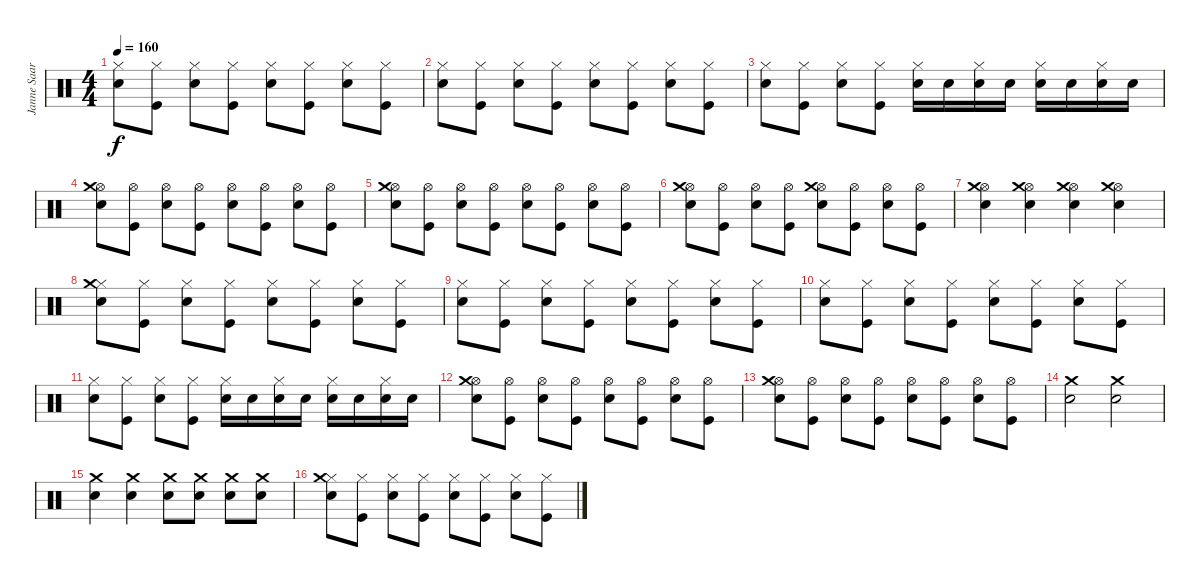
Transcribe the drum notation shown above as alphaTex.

\track ("Janne Saarenpaa" "Janne Saar") {instrument percussion}
\staff {score}
\articulation defaults
\ts (4 4)
\tempo 160
\clef neutral
\ks c
("Hi-Hat (closed)" "Snare (hit) 2").8{dy f} ("Hi-Hat (closed)" "Kick (hit)").8 ("Hi-Hat (closed)" "Snare (hit) 2").8 ("Hi-Hat (closed)" "Kick (hit)").8 ("Hi-Hat (closed)" "Snare (hit) 2").8 ("Hi-Hat (closed)" "Kick (hit)").8 ("Hi-Hat (closed)" "Snare (hit) 2").8 ("Hi-Hat (closed)" "Kick (hit)").8 |
("Hi-Hat (closed)" "Snare (hit) 2").8 ("Hi-Hat (closed)" "Kick (hit)").8 ("Hi-Hat (closed)" "Snare (hit) 2").8 ("Hi-Hat (closed)" "Kick (hit)").8 ("Hi-Hat (closed)" "Snare (hit) 2").8 ("Hi-Hat (closed)" "Kick (hit)").8 ("Hi-Hat (closed)" "Snare (hit) 2").8 ("Hi-Hat (closed)" "Kick (hit)").8 |
("Hi-Hat (closed)" "Snare (hit) 2").8 ("Hi-Hat (closed)" "Kick (hit)").8 ("Hi-Hat (closed)" "Snare (hit) 2").8 ("Hi-Hat (closed)" "Kick (hit)").8 ("Hi-Hat (closed)" "Snare (hit) 2").16 "Snare (hit) 2".16 ("Hi-Hat (closed)" "Snare (hit) 2").16 "Snare (hit) 2".16 ("Hi-Hat (closed)" "Snare (hit) 2").16 "Snare (hit) 2".16 ("Hi-Hat (closed)" "Snare (hit) 2").16 "Snare (hit) 2".16 |
("Hi-Hat (open)" "Snare (hit) 2" "Crash medium (hit)").8 ("Hi-Hat (open)" "Kick (hit)").8 ("Hi-Hat (open)" "Snare (hit) 2").8 ("Hi-Hat (open)" "Kick (hit)").8 ("Hi-Hat (open)" "Snare (hit) 2").8 ("Hi-Hat (open)" "Kick (hit)").8 ("Hi-Hat (open)" "Snare (hit) 2").8 ("Hi-Hat (open)" "Kick (hit)").8 |
("Hi-Hat (open)" "Snare (hit) 2" "Crash medium (hit)").8 ("Hi-Hat (open)" "Kick (hit)").8 ("Hi-Hat (open)" "Snare (hit) 2").8 ("Hi-Hat (open)" "Kick (hit)").8 ("Hi-Hat (open)" "Snare (hit) 2").8 ("Hi-Hat (open)" "Kick (hit)").8 ("Hi-Hat (open)" "Snare (hit) 2").8 ("Hi-Hat (open)" "Kick (hit)").8 |
("Hi-Hat (open)" "Snare (hit) 2" "Crash medium (hit)").8 ("Hi-Hat (open)" "Kick (hit)").8 ("Hi-Hat (open)" "Snare (hit) 2").8 ("Hi-Hat (open)" "Kick (hit)").8 ("Hi-Hat (open)" "Snare (hit) 2" "Crash medium (hit)").8 ("Hi-Hat (open)" "Kick (hit)").8 ("Hi-Hat (open)" "Snare (hit) 2").8 ("Hi-Hat (open)" "Kick (hit)").8 |
("Hi-Hat (open)" "Snare (hit) 2" "Crash medium (hit)").4 ("Hi-Hat (open)" "Snare (hit) 2" "Crash medium (hit)").4 ("Hi-Hat (open)" "Snare (hit) 2" "Crash medium (hit)").4 ("Hi-Hat (open)" "Snare (hit) 2" "Crash medium (hit)").4 |
("Hi-Hat (closed)" "Snare (hit) 2" "Crash medium (hit)").8 ("Hi-Hat (closed)" "Kick (hit)").8 ("Hi-Hat (closed)" "Snare (hit) 2").8 ("Hi-Hat (closed)" "Kick (hit)").8 ("Hi-Hat (closed)" "Snare (hit) 2").8 ("Hi-Hat (closed)" "Kick (hit)").8 ("Hi-Hat (closed)" "Snare (hit) 2").8 ("Hi-Hat (closed)" "Kick (hit)").8 |
("Hi-Hat (closed)" "Snare (hit) 2").8 ("Hi-Hat (closed)" "Kick (hit)").8 ("Hi-Hat (closed)" "Snare (hit) 2").8 ("Hi-Hat (closed)" "Kick (hit)").8 ("Hi-Hat (closed)" "Snare (hit) 2").8 ("Hi-Hat (closed)" "Kick (hit)").8 ("Hi-Hat (closed)" "Snare (hit) 2").8 ("Hi-Hat (closed)" "Kick (hit)").8 |
("Hi-Hat (closed)" "Snare (hit) 2").8 ("Hi-Hat (closed)" "Kick (hit)").8 ("Hi-Hat (closed)" "Snare (hit) 2").8 ("Hi-Hat (closed)" "Kick (hit)").8 ("Hi-Hat (closed)" "Snare (hit) 2").8 ("Hi-Hat (closed)" "Kick (hit)").8 ("Hi-Hat (closed)" "Snare (hit) 2").8 ("Hi-Hat (closed)" "Kick (hit)").8 |
("Hi-Hat (closed)" "Snare (hit) 2").8 ("Hi-Hat (closed)" "Kick (hit)").8 ("Hi-Hat (closed)" "Snare (hit) 2").8 ("Hi-Hat (closed)" "Kick (hit)").8 ("Hi-Hat (closed)" "Snare (hit) 2").16 "Snare (hit) 2".16 ("Hi-Hat (closed)" "Snare (hit) 2").16 "Snare (hit) 2".16 ("Hi-Hat (closed)" "Snare (hit) 2").16 "Snare (hit) 2".16 ("Hi-Hat (closed)" "Snare (hit) 2").16 "Snare (hit) 2".16 |
("Hi-Hat (open)" "Snare (hit) 2" "Crash medium (hit)").8 ("Hi-Hat (open)" "Kick (hit)").8 ("Hi-Hat (open)" "Snare (hit) 2").8 ("Hi-Hat (open)" "Kick (hit)").8 ("Hi-Hat (open)" "Snare (hit) 2").8 ("Hi-Hat (open)" "Kick (hit)").8 ("Hi-Hat (open)" "Snare (hit) 2").8 ("Hi-Hat (open)" "Kick (hit)").8 |
("Hi-Hat (open)" "Snare (hit) 2" "Crash medium (hit)").8 ("Hi-Hat (open)" "Kick (hit)").8 ("Hi-Hat (open)" "Snare (hit) 2").8 ("Hi-Hat (open)" "Kick (hit)").8 ("Hi-Hat (open)" "Snare (hit) 2").8 ("Hi-Hat (open)" "Kick (hit)").8 ("Hi-Hat (open)" "Snare (hit) 2").8 ("Hi-Hat (open)" "Kick (hit)").8 |
("Crash medium (hit)" "Snare (hit) 2").2 ("Crash medium (hit)" "Snare (hit) 2").2 |
("Crash medium (hit)" "Snare (hit) 2").4 ("Crash medium (hit)" "Snare (hit) 2").4 ("Crash medium (hit)" "Snare (hit) 2").8 ("Crash medium (hit)" "Snare (hit) 2").8 ("Crash medium (hit)" "Snare (hit) 2").8 ("Crash medium (hit)" "Snare (hit) 2").8 |
("Hi-Hat (closed)" "Snare (hit) 2" "Crash medium (hit)").8 ("Hi-Hat (closed)" "Kick (hit)").8 ("Hi-Hat (closed)" "Snare (hit) 2").8 ("Hi-Hat (closed)" "Kick (hit)").8 ("Hi-Hat (closed)" "Snare (hit) 2").8 ("Hi-Hat (closed)" "Kick (hit)").8 ("Hi-Hat (closed)" "Snare (hit) 2").8 ("Hi-Hat (closed)" "Kick (hit)").8
